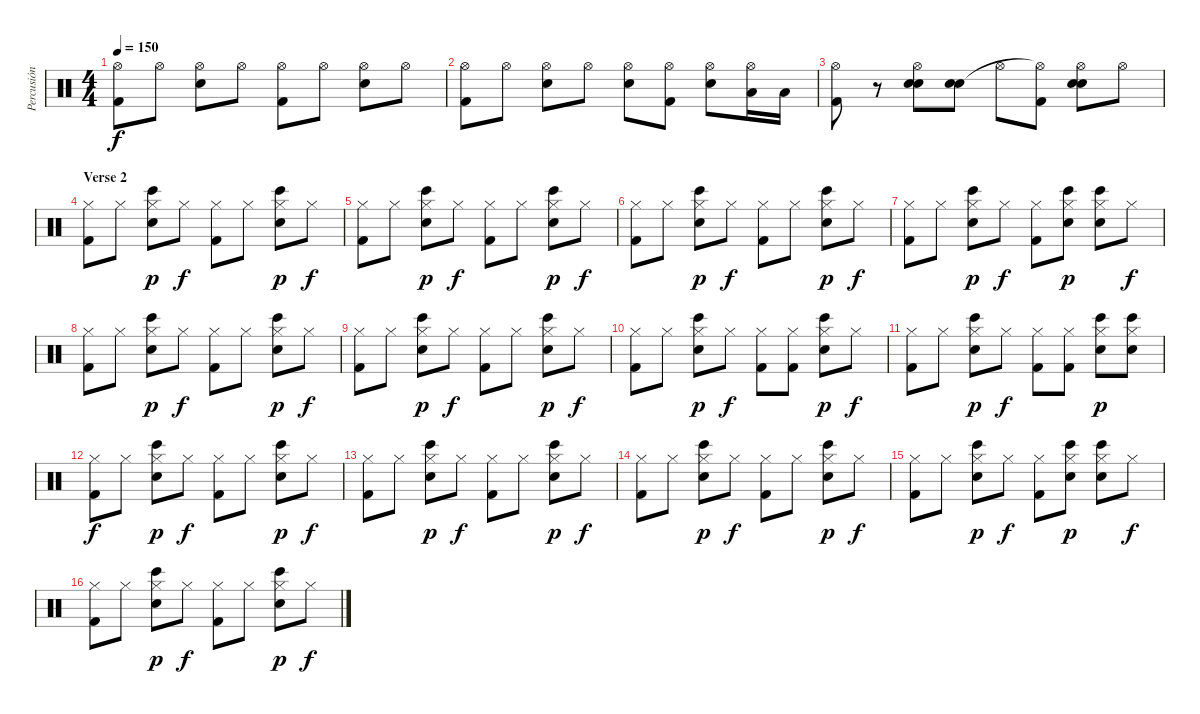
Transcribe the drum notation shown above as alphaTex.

\track ("Percusión" "Percusión") {instrument percussion}
\staff {score}
\articulation defaults
\ts (4 4)
\tempo 150
\clef neutral
\ks c
("Kick (hit) 2" "Hi-Hat (open)").8{dy f} "Hi-Hat (open)".8 ("Snare (hit) 2" "Hi-Hat (open)").8 "Hi-Hat (open)".8 ("Kick (hit) 2" "Hi-Hat (open)").8 "Hi-Hat (open)".8 ("Snare (hit) 2" "Hi-Hat (open)").8 "Hi-Hat (open)".8 |
("Kick (hit) 2" "Hi-Hat (open)").8 "Hi-Hat (open)".8 ("Snare (hit) 2" "Hi-Hat (open)").8 "Hi-Hat (open)".8 ("Snare (hit) 2" "Hi-Hat (open)").8 ("Kick (hit) 2" "Hi-Hat (open)").8 ("Snare (hit) 2" "Hi-Hat (open)").8 ("Low Tom (hit)" "Hi-Hat (open)").16 "Low Tom (hit)".16 |
("Kick (hit) 2" "Hi-Hat (open)").8 r.8 ("Hand Clap (hit)" "Snare (hit) 2" "Hi-Hat (open)").8 ("Hand Clap (hit)" "Snare (hit) 2").8 "Hi-Hat (open)".8 ("Kick (hit) 2" "Hi-Hat (open)"{t}).8 ("Snare (hit) 2" "Hand Clap (hit)" "Hi-Hat (open)").8 "Hi-Hat (open)".8 |
\section ("" "Verse 2")
("Hi-Hat (closed)" "Kick (hit) 2").8 "Hi-Hat (closed)".8 ("Hi-Hat (closed)" "Bongo High (hit)" "Snare (hit) 2").8{dy p} "Hi-Hat (closed)".8{dy f} ("Hi-Hat (closed)" "Kick (hit) 2").8 "Hi-Hat (closed)".8 ("Hi-Hat (closed)" "Bongo High (hit)" "Snare (hit) 2").8{dy p} "Hi-Hat (closed)".8{dy f} |
("Hi-Hat (closed)" "Kick (hit) 2").8 "Hi-Hat (closed)".8 ("Hi-Hat (closed)" "Bongo High (hit)" "Snare (hit) 2").8{dy p} "Hi-Hat (closed)".8{dy f} ("Hi-Hat (closed)" "Kick (hit) 2").8 "Hi-Hat (closed)".8 ("Hi-Hat (closed)" "Bongo High (hit)" "Snare (hit) 2").8{dy p} "Hi-Hat (closed)".8{dy f} |
("Hi-Hat (closed)" "Kick (hit) 2").8 "Hi-Hat (closed)".8 ("Hi-Hat (closed)" "Bongo High (hit)" "Snare (hit) 2").8{dy p} "Hi-Hat (closed)".8{dy f} ("Hi-Hat (closed)" "Kick (hit) 2").8 "Hi-Hat (closed)".8 ("Hi-Hat (closed)" "Bongo High (hit)" "Snare (hit) 2").8{dy p} "Hi-Hat (closed)".8{dy f} |
("Hi-Hat (closed)" "Kick (hit) 2").8 "Hi-Hat (closed)".8 ("Hi-Hat (closed)" "Bongo High (hit)" "Snare (hit) 2").8{dy p} "Hi-Hat (closed)".8{dy f} ("Hi-Hat (closed)" "Kick (hit) 2").8 ("Hi-Hat (closed)" "Bongo High (hit)" "Snare (hit) 2").8{dy p} ("Hi-Hat (closed)" "Bongo High (hit)" "Snare (hit) 2").8 "Hi-Hat (closed)".8{dy f} |
("Hi-Hat (closed)" "Kick (hit) 2").8 "Hi-Hat (closed)".8 ("Hi-Hat (closed)" "Bongo High (hit)" "Snare (hit) 2").8{dy p} "Hi-Hat (closed)".8{dy f} ("Hi-Hat (closed)" "Kick (hit) 2").8 "Hi-Hat (closed)".8 ("Hi-Hat (closed)" "Bongo High (hit)" "Snare (hit) 2").8{dy p} "Hi-Hat (closed)".8{dy f} |
("Hi-Hat (closed)" "Kick (hit) 2").8 "Hi-Hat (closed)".8 ("Hi-Hat (closed)" "Bongo High (hit)" "Snare (hit) 2").8{dy p} "Hi-Hat (closed)".8{dy f} ("Hi-Hat (closed)" "Kick (hit) 2").8 "Hi-Hat (closed)".8 ("Hi-Hat (closed)" "Bongo High (hit)" "Snare (hit) 2").8{dy p} "Hi-Hat (closed)".8{dy f} |
("Hi-Hat (closed)" "Kick (hit) 2").8 "Hi-Hat (closed)".8 ("Hi-Hat (closed)" "Bongo High (hit)" "Snare (hit) 2").8{dy p} "Hi-Hat (closed)".8{dy f} ("Hi-Hat (closed)" "Kick (hit) 2").8 ("Hi-Hat (closed)" "Kick (hit) 2").8 ("Hi-Hat (closed)" "Bongo High (hit)" "Snare (hit) 2").8{dy p} "Hi-Hat (closed)".8{dy f} |
("Hi-Hat (closed)" "Kick (hit) 2").8 "Hi-Hat (closed)".8 ("Hi-Hat (closed)" "Bongo High (hit)" "Snare (hit) 2").8{dy p} "Hi-Hat (closed)".8{dy f} ("Hi-Hat (closed)" "Kick (hit) 2").8 ("Hi-Hat (closed)" "Kick (hit) 2").8 ("Hi-Hat (closed)" "Bongo High (hit)" "Snare (hit) 2").8{dy p} ("Hi-Hat (closed)" "Bongo High (hit)" "Snare (hit) 2").8 |
("Hi-Hat (closed)" "Kick (hit) 2").8{dy f} "Hi-Hat (closed)".8 ("Hi-Hat (closed)" "Bongo High (hit)" "Snare (hit) 2").8{dy p} "Hi-Hat (closed)".8{dy f} ("Hi-Hat (closed)" "Kick (hit) 2").8 "Hi-Hat (closed)".8 ("Hi-Hat (closed)" "Bongo High (hit)" "Snare (hit) 2").8{dy p} "Hi-Hat (closed)".8{dy f} |
("Hi-Hat (closed)" "Kick (hit) 2").8 "Hi-Hat (closed)".8 ("Hi-Hat (closed)" "Bongo High (hit)" "Snare (hit) 2").8{dy p} "Hi-Hat (closed)".8{dy f} ("Hi-Hat (closed)" "Kick (hit) 2").8 "Hi-Hat (closed)".8 ("Hi-Hat (closed)" "Bongo High (hit)" "Snare (hit) 2").8{dy p} "Hi-Hat (closed)".8{dy f} |
("Hi-Hat (closed)" "Kick (hit) 2").8 "Hi-Hat (closed)".8 ("Hi-Hat (closed)" "Bongo High (hit)" "Snare (hit) 2").8{dy p} "Hi-Hat (closed)".8{dy f} ("Hi-Hat (closed)" "Kick (hit) 2").8 "Hi-Hat (closed)".8 ("Hi-Hat (closed)" "Bongo High (hit)" "Snare (hit) 2").8{dy p} "Hi-Hat (closed)".8{dy f} |
("Hi-Hat (closed)" "Kick (hit) 2").8 "Hi-Hat (closed)".8 ("Hi-Hat (closed)" "Bongo High (hit)" "Snare (hit) 2").8{dy p} "Hi-Hat (closed)".8{dy f} ("Hi-Hat (closed)" "Kick (hit) 2").8 ("Hi-Hat (closed)" "Bongo High (hit)" "Snare (hit) 2").8{dy p} ("Hi-Hat (closed)" "Bongo High (hit)" "Snare (hit) 2").8 "Hi-Hat (closed)".8{dy f} |
("Hi-Hat (closed)" "Kick (hit) 2").8 "Hi-Hat (closed)".8 ("Hi-Hat (closed)" "Bongo High (hit)" "Snare (hit) 2").8{dy p} "Hi-Hat (closed)".8{dy f} ("Hi-Hat (closed)" "Kick (hit) 2").8 "Hi-Hat (closed)".8 ("Hi-Hat (closed)" "Bongo High (hit)" "Snare (hit) 2").8{dy p} "Hi-Hat (closed)".8{dy f}
